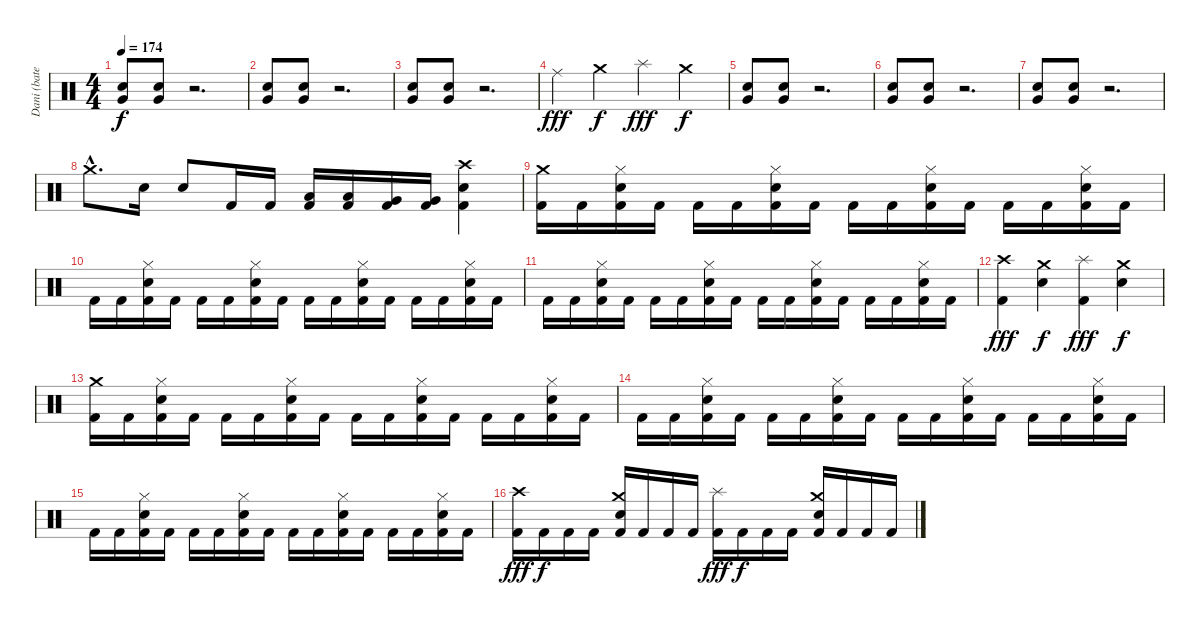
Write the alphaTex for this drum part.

\track ("Dani (batería)" "Dani (bate") {instrument percussion}
\staff {score}
\articulation defaults
\ts (4 4)
\tempo 174
\clef neutral
\ks c
("Very Low Tom (hit)" "Electric Snare (hit)").8{dy f} ("Very Low Tom (hit)" "Electric Snare (hit)").8 r.2{d} |
("Very Low Tom (hit)" "Electric Snare (hit)").8 ("Very Low Tom (hit)" "Electric Snare (hit)").8 r.2{d} |
("Very Low Tom (hit)" "Electric Snare (hit)").8 ("Very Low Tom (hit)" "Electric Snare (hit)").8 r.2{d} |
"Ride (middle)".4{dy fff} "Crash medium (hit)".4{dy f} "Splash (hit)".4{dy fff} "Crash medium (hit)".4{dy f} |
("Very Low Tom (hit)" "Electric Snare (hit)").8 ("Very Low Tom (hit)" "Electric Snare (hit)").8 r.2{d} |
("Very Low Tom (hit)" "Electric Snare (hit)").8 ("Very Low Tom (hit)" "Electric Snare (hit)").8 r.2{d} |
("Very Low Tom (hit)" "Electric Snare (hit)").8 ("Very Low Tom (hit)" "Electric Snare (hit)").8 r.2{d} |
"Crash medium (hit)"{hac}.8{d} "Electric Snare (hit)".16 "Electric Snare (hit)".8 "Kick (hit) 2".16 "Kick (hit) 2".16 ("Low Tom (hit)" "Kick (hit) 2").16 ("Low Tom (hit)" "Kick (hit) 2").16 ("Very Low Tom (hit)" "Kick (hit) 2").16 ("Very Low Tom (hit)" "Kick (hit) 2").16 ("Crash high (hit)" "Electric Snare (hit)" "Kick (hit) 2").4 |
("Crash medium (hit)" "Kick (hit) 2").16 "Kick (hit) 2".16 ("Hi-Hat (closed)" "Electric Snare (hit)" "Kick (hit) 2").16 "Kick (hit) 2".16 "Kick (hit) 2".16 "Kick (hit) 2".16 ("Hi-Hat (closed)" "Electric Snare (hit)" "Kick (hit) 2").16 "Kick (hit) 2".16 "Kick (hit) 2".16 "Kick (hit) 2".16 ("Hi-Hat (closed)" "Electric Snare (hit)" "Kick (hit) 2").16 "Kick (hit) 2".16 "Kick (hit) 2".16 "Kick (hit) 2".16 ("Hi-Hat (closed)" "Electric Snare (hit)" "Kick (hit) 2").16 "Kick (hit) 2".16 |
"Kick (hit) 2".16 "Kick (hit) 2".16 ("Hi-Hat (closed)" "Electric Snare (hit)" "Kick (hit) 2").16 "Kick (hit) 2".16 "Kick (hit) 2".16 "Kick (hit) 2".16 ("Hi-Hat (closed)" "Electric Snare (hit)" "Kick (hit) 2").16 "Kick (hit) 2".16 "Kick (hit) 2".16 "Kick (hit) 2".16 ("Hi-Hat (closed)" "Electric Snare (hit)" "Kick (hit) 2").16 "Kick (hit) 2".16 "Kick (hit) 2".16 "Kick (hit) 2".16 ("Hi-Hat (closed)" "Electric Snare (hit)" "Kick (hit) 2").16 "Kick (hit) 2".16 |
"Kick (hit) 2".16 "Kick (hit) 2".16 ("Hi-Hat (closed)" "Electric Snare (hit)" "Kick (hit) 2").16 "Kick (hit) 2".16 "Kick (hit) 2".16 "Kick (hit) 2".16 ("Hi-Hat (closed)" "Electric Snare (hit)" "Kick (hit) 2").16 "Kick (hit) 2".16 "Kick (hit) 2".16 "Kick (hit) 2".16 ("Hi-Hat (closed)" "Electric Snare (hit)" "Kick (hit) 2").16 "Kick (hit) 2".16 "Kick (hit) 2".16 "Kick (hit) 2".16 ("Hi-Hat (closed)" "Electric Snare (hit)" "Kick (hit) 2").16 "Kick (hit) 2".16 |
("Crash high (hit)" "Kick (hit) 2").4{dy fff} ("Crash medium (hit)" "Electric Snare (hit)").4{dy f} ("Splash (hit)" "Kick (hit) 2").4{dy fff} ("Crash medium (hit)" "Electric Snare (hit)").4{dy f} |
("Crash medium (hit)" "Kick (hit) 2").16 "Kick (hit) 2".16 ("Hi-Hat (closed)" "Electric Snare (hit)" "Kick (hit) 2").16 "Kick (hit) 2".16 "Kick (hit) 2".16 "Kick (hit) 2".16 ("Hi-Hat (closed)" "Electric Snare (hit)" "Kick (hit) 2").16 "Kick (hit) 2".16 "Kick (hit) 2".16 "Kick (hit) 2".16 ("Hi-Hat (closed)" "Electric Snare (hit)" "Kick (hit) 2").16 "Kick (hit) 2".16 "Kick (hit) 2".16 "Kick (hit) 2".16 ("Hi-Hat (closed)" "Electric Snare (hit)" "Kick (hit) 2").16 "Kick (hit) 2".16 |
"Kick (hit) 2".16 "Kick (hit) 2".16 ("Hi-Hat (closed)" "Electric Snare (hit)" "Kick (hit) 2").16 "Kick (hit) 2".16 "Kick (hit) 2".16 "Kick (hit) 2".16 ("Hi-Hat (closed)" "Electric Snare (hit)" "Kick (hit) 2").16 "Kick (hit) 2".16 "Kick (hit) 2".16 "Kick (hit) 2".16 ("Hi-Hat (closed)" "Electric Snare (hit)" "Kick (hit) 2").16 "Kick (hit) 2".16 "Kick (hit) 2".16 "Kick (hit) 2".16 ("Hi-Hat (closed)" "Electric Snare (hit)" "Kick (hit) 2").16 "Kick (hit) 2".16 |
"Kick (hit) 2".16 "Kick (hit) 2".16 ("Hi-Hat (closed)" "Electric Snare (hit)" "Kick (hit) 2").16 "Kick (hit) 2".16 "Kick (hit) 2".16 "Kick (hit) 2".16 ("Hi-Hat (closed)" "Electric Snare (hit)" "Kick (hit) 2").16 "Kick (hit) 2".16 "Kick (hit) 2".16 "Kick (hit) 2".16 ("Hi-Hat (closed)" "Electric Snare (hit)" "Kick (hit) 2").16 "Kick (hit) 2".16 "Kick (hit) 2".16 "Kick (hit) 2".16 ("Hi-Hat (closed)" "Electric Snare (hit)" "Kick (hit) 2").16 "Kick (hit) 2".16 |
("Crash high (hit)" "Kick (hit) 2").16{dy fff} "Kick (hit) 2".16{dy f} "Kick (hit) 2".16 "Kick (hit) 2".16 ("Crash medium (hit)" "Electric Snare (hit)" "Kick (hit) 2").16 "Kick (hit) 2".16 "Kick (hit) 2".16 "Kick (hit) 2".16 ("Splash (hit)" "Kick (hit) 2").16{dy fff} "Kick (hit) 2".16{dy f} "Kick (hit) 2".16 "Kick (hit) 2".16 ("Crash medium (hit)" "Electric Snare (hit)" "Kick (hit) 2").16 "Kick (hit) 2".16 "Kick (hit) 2".16 "Kick (hit) 2".16
